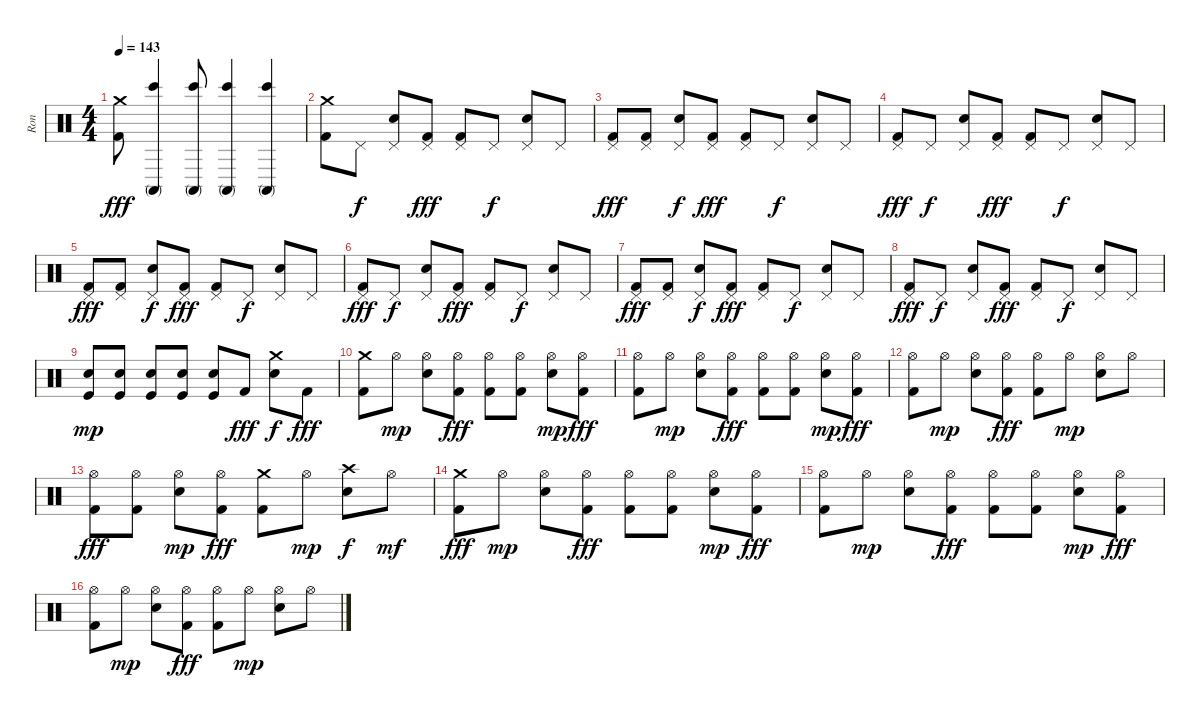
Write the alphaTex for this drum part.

\track ("Ron" "Ron") {instrument percussion}
\staff {score}
\articulation defaults
\ts (4 4)
\tempo 143
\clef neutral
\ks c
("Crash medium (hit)" "Kick (hit) 2").8{dy fff} ("Conga high (mute)" "Bongo High (hit)").4 ("Conga high (mute)" "Bongo High (hit)").8 ("Conga high (mute)" "Bongo High (hit)").4 ("Conga high (mute)" "Bongo High (hit)").4 |
("Crash medium (hit)" "Kick (hit) 2").8 "Pedal Hi-Hat (hit)".8{dy f} ("Pedal Hi-Hat (hit)" "Snare (hit) 2").8 ("Pedal Hi-Hat (hit)" "Kick (hit) 2").8{dy fff} ("Pedal Hi-Hat (hit)" "Kick (hit) 2").8 "Pedal Hi-Hat (hit)".8{dy f} ("Pedal Hi-Hat (hit)" "Snare (hit) 2").8 "Pedal Hi-Hat (hit)".8 |
("Pedal Hi-Hat (hit)" "Kick (hit) 2").8{dy fff} ("Pedal Hi-Hat (hit)" "Kick (hit) 2").8 ("Pedal Hi-Hat (hit)" "Snare (hit) 2").8{dy f} ("Pedal Hi-Hat (hit)" "Kick (hit) 2").8{dy fff} ("Pedal Hi-Hat (hit)" "Kick (hit) 2").8 "Pedal Hi-Hat (hit)".8{dy f} ("Pedal Hi-Hat (hit)" "Snare (hit) 2").8 "Pedal Hi-Hat (hit)".8 |
("Pedal Hi-Hat (hit)" "Kick (hit) 2").8{dy fff} "Pedal Hi-Hat (hit)".8{dy f} ("Pedal Hi-Hat (hit)" "Snare (hit) 2").8 ("Pedal Hi-Hat (hit)" "Kick (hit) 2").8{dy fff} ("Pedal Hi-Hat (hit)" "Kick (hit) 2").8 "Pedal Hi-Hat (hit)".8{dy f} ("Pedal Hi-Hat (hit)" "Snare (hit) 2").8 "Pedal Hi-Hat (hit)".8 |
("Pedal Hi-Hat (hit)" "Kick (hit) 2").8{dy fff} ("Pedal Hi-Hat (hit)" "Kick (hit) 2").8 ("Pedal Hi-Hat (hit)" "Snare (hit) 2").8{dy f} ("Pedal Hi-Hat (hit)" "Kick (hit) 2").8{dy fff} ("Pedal Hi-Hat (hit)" "Kick (hit) 2").8 "Pedal Hi-Hat (hit)".8{dy f} ("Pedal Hi-Hat (hit)" "Snare (hit) 2").8 "Pedal Hi-Hat (hit)".8 |
("Pedal Hi-Hat (hit)" "Kick (hit) 2").8{dy fff} "Pedal Hi-Hat (hit)".8{dy f} ("Pedal Hi-Hat (hit)" "Snare (hit) 2").8 ("Pedal Hi-Hat (hit)" "Kick (hit) 2").8{dy fff} ("Pedal Hi-Hat (hit)" "Kick (hit) 2").8 "Pedal Hi-Hat (hit)".8{dy f} ("Pedal Hi-Hat (hit)" "Snare (hit) 2").8 "Pedal Hi-Hat (hit)".8 |
("Pedal Hi-Hat (hit)" "Kick (hit) 2").8{dy fff} ("Pedal Hi-Hat (hit)" "Kick (hit) 2").8 ("Pedal Hi-Hat (hit)" "Snare (hit) 2").8{dy f} ("Pedal Hi-Hat (hit)" "Kick (hit) 2").8{dy fff} ("Pedal Hi-Hat (hit)" "Kick (hit) 2").8 "Pedal Hi-Hat (hit)".8{dy f} ("Pedal Hi-Hat (hit)" "Snare (hit) 2").8 "Pedal Hi-Hat (hit)".8 |
("Pedal Hi-Hat (hit)" "Kick (hit) 2").8{dy fff} "Pedal Hi-Hat (hit)".8{dy f} ("Pedal Hi-Hat (hit)" "Snare (hit) 2").8 ("Pedal Hi-Hat (hit)" "Kick (hit) 2").8{dy fff} ("Pedal Hi-Hat (hit)" "Kick (hit) 2").8 "Pedal Hi-Hat (hit)".8{dy f} ("Pedal Hi-Hat (hit)" "Snare (hit) 2").8 "Pedal Hi-Hat (hit)".8 |
("Snare (hit) 2" "Kick (hit)").8{dy mp} ("Snare (hit) 2" "Kick (hit)").8 ("Snare (hit) 2" "Kick (hit)").8 ("Snare (hit) 2" "Kick (hit)").8 ("Snare (hit) 2" "Kick (hit)").8 "Kick (hit) 2".8{dy fff} ("Snare (hit) 2" "Crash medium (hit)").8{dy f} "Kick (hit) 2".8{dy fff} |
("Crash medium (hit)" "Kick (hit) 2").8 "Hi-Hat (open)".8{dy mp} ("Hi-Hat (open)" "Snare (hit) 2").8 ("Hi-Hat (open)" "Kick (hit) 2").8{dy fff} ("Hi-Hat (open)" "Kick (hit) 2").8 ("Hi-Hat (open)" "Kick (hit) 2").8 ("Hi-Hat (open)" "Snare (hit) 2").8{dy mp} ("Hi-Hat (open)" "Kick (hit) 2").8{dy fff} |
("Hi-Hat (open)" "Kick (hit) 2").8 "Hi-Hat (open)".8{dy mp} ("Hi-Hat (open)" "Snare (hit) 2").8 ("Hi-Hat (open)" "Kick (hit) 2").8{dy fff} ("Hi-Hat (open)" "Kick (hit) 2").8 ("Hi-Hat (open)" "Kick (hit) 2").8 ("Hi-Hat (open)" "Snare (hit) 2").8{dy mp} ("Hi-Hat (open)" "Kick (hit) 2").8{dy fff} |
("Hi-Hat (open)" "Kick (hit) 2").8 "Hi-Hat (open)".8{dy mp} ("Hi-Hat (open)" "Snare (hit) 2").8 ("Hi-Hat (open)" "Kick (hit) 2").8{dy fff} ("Hi-Hat (open)" "Kick (hit) 2").8 "Hi-Hat (open)".8{dy mp} ("Hi-Hat (open)" "Snare (hit) 2").8 "Hi-Hat (open)".8 |
("Hi-Hat (open)" "Kick (hit) 2").8{dy fff} ("Hi-Hat (open)" "Kick (hit) 2").8 ("Hi-Hat (open)" "Snare (hit) 2").8{dy mp} ("Hi-Hat (open)" "Kick (hit) 2").8{dy fff} ("Crash medium (hit)" "Kick (hit) 2").8 "Hi-Hat (open)".8{dy mp} ("Crash high (hit)" "Snare (hit) 2").8{dy f} "Hi-Hat (open)".8{dy mf} |
("Crash medium (hit)" "Kick (hit) 2").8{dy fff} "Hi-Hat (open)".8{dy mp} ("Hi-Hat (open)" "Snare (hit) 2").8 ("Hi-Hat (open)" "Kick (hit) 2").8{dy fff} ("Hi-Hat (open)" "Kick (hit) 2").8 ("Hi-Hat (open)" "Kick (hit) 2").8 ("Hi-Hat (open)" "Snare (hit) 2").8{dy mp} ("Hi-Hat (open)" "Kick (hit) 2").8{dy fff} |
("Hi-Hat (open)" "Kick (hit) 2").8 "Hi-Hat (open)".8{dy mp} ("Hi-Hat (open)" "Snare (hit) 2").8 ("Hi-Hat (open)" "Kick (hit) 2").8{dy fff} ("Hi-Hat (open)" "Kick (hit) 2").8 ("Hi-Hat (open)" "Kick (hit) 2").8 ("Hi-Hat (open)" "Snare (hit) 2").8{dy mp} ("Hi-Hat (open)" "Kick (hit) 2").8{dy fff} |
("Hi-Hat (open)" "Kick (hit) 2").8 "Hi-Hat (open)".8{dy mp} ("Hi-Hat (open)" "Snare (hit) 2").8 ("Hi-Hat (open)" "Kick (hit) 2").8{dy fff} ("Hi-Hat (open)" "Kick (hit) 2").8 "Hi-Hat (open)".8{dy mp} ("Hi-Hat (open)" "Snare (hit) 2").8 "Hi-Hat (open)".8
